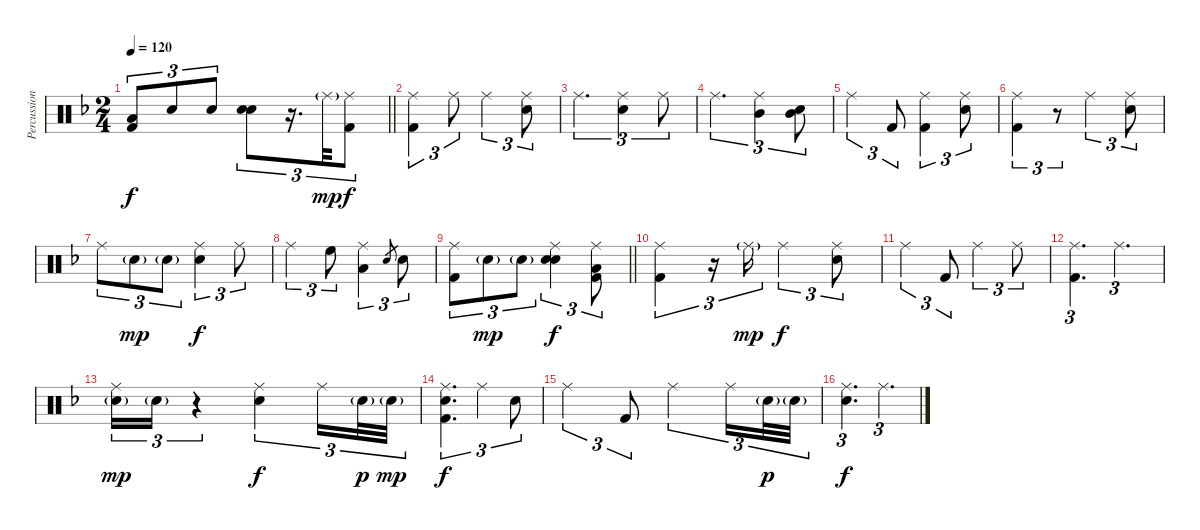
\track ("Percussion" "Percussion") {instrument percussion}
\staff {score}
\articulation defaults
\ts (2 4)
\tempo 120
\clef neutral
\barLineRight lightlight
\ks dminor
("Low Tom (hit)" "Kick (hit) 2").8{tu (3 2) dy f volume 13 balance 8} "Snare (hit) 2".8{tu (3 2)} "Snare (hit) 2".8{tu (3 2)} ("Snare (hit) 2" "Electric Snare (hit)").8{tu (3 2)} r.16{d tu (3 2)} "Ride (middle)"{g}.32{tu (3 2) dy mp} ("Ride (middle)" "Kick (hit) 2").8{tu (3 2) dy f} |
("Ride (middle)" "Kick (hit) 2").4{tu (3 2)} "Ride (middle)".8{tu (3 2)} "Ride (middle)".4{tu (3 2)} ("Ride (middle)" "Snare (hit) 2").8{tu (3 2)} |
"Ride (middle)".4{d tu (3 2)} ("Ride (middle)" "Snare (hit) 2").4{tu (3 2)} "Ride (middle)".8{tu (3 2)} |
"Ride (middle)".4{d tu (3 2)} ("Ride (middle)" "Mid Tom (hit)").4{tu (3 2)} ("Mid Tom (hit)" "Snare (hit) 2").8{tu (3 2)} |
"Ride (middle)".4{tu (3 2)} "Kick (hit) 2".8{tu (3 2)} ("Ride (middle)" "Kick (hit) 2").4{tu (3 2)} ("Ride (middle)" "Snare (hit) 2").8{tu (3 2)} |
("Ride (middle)" "Kick (hit) 2").4{tu (3 2)} r.8{tu (3 2)} "Ride (middle)".4{tu (3 2)} ("Ride (middle)" "Snare (hit) 2").8{tu (3 2)} |
"Ride (middle)".8{tu (3 2)} "Snare (hit) 2"{g}.8{tu (3 2) dy mp} "Snare (hit) 2"{g}.8{tu (3 2)} ("Ride (middle)" "Snare (hit) 2").4{tu (3 2) dy f} "Ride (middle)".8{tu (3 2)} |
"Ride (middle)".4{tu (3 2)} "High Floor Tom (hit)".8{tu (3 2)} ("Ride (middle)" "Low Tom (hit)").4{tu (3 2)} "Snare (hit) 2".8{gr} "Snare (hit) 2".8{tu (3 2)} |
\barLineRight lightlight
("Ride (middle)" "Kick (hit) 2").8{tu (3 2)} "Snare (hit) 2"{g}.8{tu (3 2) dy mp} "Snare (hit) 2"{g}.8{tu (3 2)} ("Ride (middle)" "Snare (hit) 2" "Electric Snare (hit)").4{tu (3 2) dy f} ("Ride (middle)" "Low Tom (hit)" "Kick (hit) 2").8{tu (3 2)} |
("Ride (middle)" "Kick (hit) 2").4{tu (3 2)} r.16{tu (3 2)} "Ride (middle)"{g}.16{tu (3 2) dy mp} "Ride (middle)".4{tu (3 2) dy f} ("Ride (middle)" "Snare (hit) 2").8{tu (3 2)} |
"Ride (middle)".4{tu (3 2)} "Kick (hit) 2".8{tu (3 2)} "Ride (middle)".4{tu (3 2)} "Ride (middle)".8{tu (3 2)} |
("Ride (middle)" "Kick (hit) 2").4{d tu (3 2)} "Ride (middle)".4{d tu (3 2)} |
("Ride (middle)" "Snare (hit) 2"{g}).16{tu (3 2) dy mp} "Snare (hit) 2"{g}.16{tu (3 2)} r.4{tu (3 2)} ("Ride (middle)" "Snare (hit) 2").4{tu (3 2) dy f} "Ride (middle)".16{tu (3 2)} "Snare (hit) 2"{g}.32{tu (3 2) dy p} "Snare (hit) 2"{g}.32{tu (3 2) dy mp} |
("Ride (middle)" "Snare (hit) 2" "Kick (hit) 2").4{d tu (3 2) dy f} "Ride (middle)".4{tu (3 2)} "Snare (hit) 2".8{tu (3 2)} |
"Ride (middle)".4{tu (3 2)} "Kick (hit) 2".8{tu (3 2)} "Ride (middle)".4{tu (3 2)} "Ride (middle)".16{tu (3 2)} "Snare (hit) 2"{g}.32{tu (3 2) dy p} "Snare (hit) 2"{g}.32{tu (3 2)} |
("Ride (middle)" "Snare (hit) 2").4{d tu (3 2) dy f} "Ride (middle)".4{d tu (3 2)}
